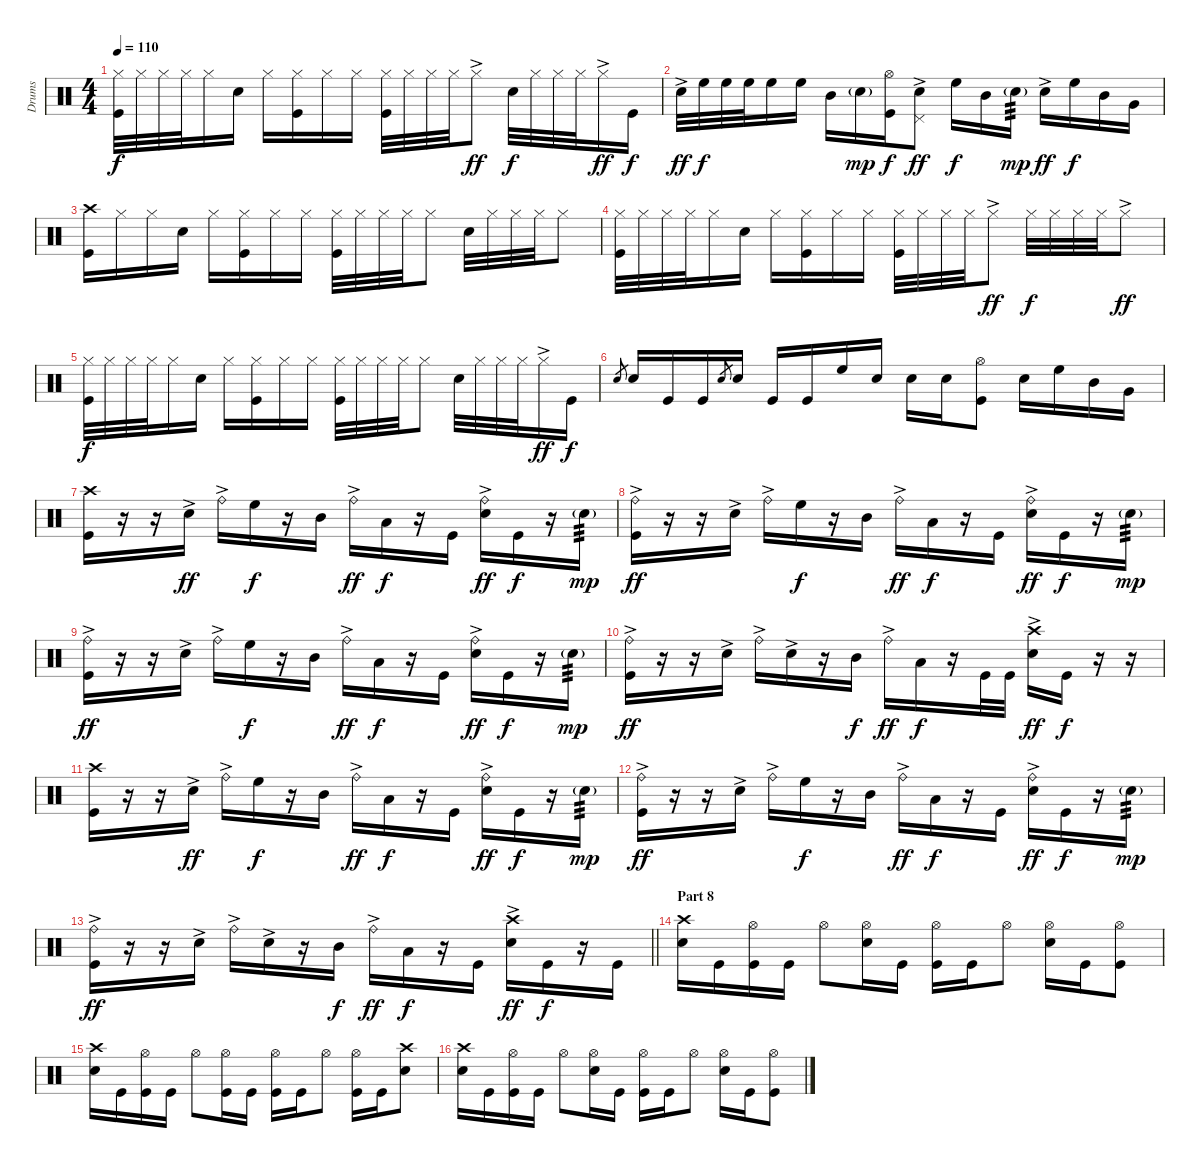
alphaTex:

\track ("Drums" "Drums") {instrument percussion}
\staff {score}
\articulation defaults
\ts (4 4)
\tempo 110
\clef neutral
\ks c
("Kick (hit)" "Hi-Hat (closed)").32{dy f} "Hi-Hat (closed)".32 "Hi-Hat (closed)".32 "Hi-Hat (closed)".32 "Hi-Hat (closed)".16 "Electric Snare (hit)".16 "Hi-Hat (closed)".16 ("Hi-Hat (closed)" "Kick (hit)").16 "Hi-Hat (closed)".16 "Hi-Hat (closed)".16 ("Kick (hit)" "Hi-Hat (closed)").32 "Hi-Hat (closed)".32 "Hi-Hat (closed)".32 "Hi-Hat (closed)".32 "Hi-Hat (closed)"{ac}.8{dy ff} "Electric Snare (hit)".32{dy f} "Hi-Hat (closed)".32 "Hi-Hat (closed)".32 "Hi-Hat (closed)".32 "Hi-Hat (closed)"{ac}.16{dy ff} "Kick (hit)".16{dy f} |
"Electric Snare (hit)"{ac}.32{dy ff} "High Floor Tom (hit)".32{dy f} "High Floor Tom (hit)".32 "High Floor Tom (hit)".32 "High Floor Tom (hit)".16 "High Floor Tom (hit)".16 "Mid Tom (hit)".16 "Electric Snare (hit)"{g}.16{dy mp} ("Hi-Hat (open)" "Kick (hit)").16{dy f} ("Electric Snare (hit)"{ac} "Pedal Hi-Hat (hit)").8{dy ff} "High Floor Tom (hit)".16{dy f} "Mid Tom (hit)".16 "Snare (hit) 2"{g}.16{tp 3 dy mp} "Electric Snare (hit)"{ac}.16{dy ff} "High Floor Tom (hit)".16{dy f} "Mid Tom (hit)".16 "Very Low Tom (hit)".16 |
("Kick (hit)" "Crash high (hit)").16 "Hi-Hat (closed)".16 "Hi-Hat (closed)".16 "Electric Snare (hit)".16 "Hi-Hat (closed)".16 ("Hi-Hat (closed)" "Kick (hit)").16 "Hi-Hat (closed)".16 "Hi-Hat (closed)".16 ("Kick (hit)" "Hi-Hat (closed)").32 "Hi-Hat (closed)".32 "Hi-Hat (closed)".32 "Hi-Hat (closed)".32 "Hi-Hat (closed)".8 "Electric Snare (hit)".32 "Hi-Hat (closed)".32 "Hi-Hat (closed)".32 "Hi-Hat (closed)".32 "Hi-Hat (closed)".8 |
("Kick (hit)" "Hi-Hat (closed)").32 "Hi-Hat (closed)".32 "Hi-Hat (closed)".32 "Hi-Hat (closed)".32 "Hi-Hat (closed)".16 "Electric Snare (hit)".16 "Hi-Hat (closed)".16 ("Hi-Hat (closed)" "Kick (hit)").16 "Hi-Hat (closed)".16 "Hi-Hat (closed)".16 ("Kick (hit)" "Hi-Hat (closed)").32 "Hi-Hat (closed)".32 "Hi-Hat (closed)".32 "Hi-Hat (closed)".32 "Hi-Hat (closed)"{ac}.8{dy ff} "Hi-Hat (closed)".32{dy f} "Hi-Hat (closed)".32 "Hi-Hat (closed)".32 "Hi-Hat (closed)".32 "Hi-Hat (closed)"{ac}.8{dy ff} |
("Kick (hit)" "Hi-Hat (closed)").32{dy f} "Hi-Hat (closed)".32 "Hi-Hat (closed)".32 "Hi-Hat (closed)".32 "Hi-Hat (closed)".16 "Electric Snare (hit)".16 "Hi-Hat (closed)".16 ("Hi-Hat (closed)" "Kick (hit)").16 "Hi-Hat (closed)".16 "Hi-Hat (closed)".16 ("Kick (hit)" "Hi-Hat (closed)").32 "Hi-Hat (closed)".32 "Hi-Hat (closed)".32 "Hi-Hat (closed)".32 "Hi-Hat (closed)".8 "Electric Snare (hit)".32 "Hi-Hat (closed)".32 "Hi-Hat (closed)".32 "Hi-Hat (closed)".32 "Hi-Hat (closed)"{ac}.16{dy ff} "Kick (hit)".16{dy f} |
"Electric Snare (hit)".8{gr} "Electric Snare (hit)".16 "Kick (hit)".16 "Kick (hit)".16 "Electric Snare (hit)".8{gr} "Electric Snare (hit)".16 "Kick (hit)".16 "Kick (hit)".16 "High Floor Tom (hit)".16 "Electric Snare (hit)".16 "Electric Snare (hit)".16 "Electric Snare (hit)".16 ("Kick (hit)" "Hi-Hat (open)").8 "Electric Snare (hit)".16 "High Floor Tom (hit)".16 "Mid Tom (hit)".16 "Very Low Tom (hit)".16 |
("Kick (hit)" "Crash high (hit)").16 r.16 r.16 "Electric Snare (hit)"{ac}.16{dy ff} "Ride (bell)"{ac}.16 "High Floor Tom (hit)".16{dy f} r.16 "Mid Tom (hit)".16 "Ride (bell)"{ac}.16{dy ff} "Low Tom (hit)".16{dy f} r.16 "Kick (hit)".16 ("Ride (bell)"{ac} "Electric Snare (hit)"{ac}).16{dy ff} "Kick (hit)".16{dy f} r.16 "Snare (hit) 2"{g}.16{tp 3 dy mp} |
("Kick (hit)" "Ride (bell)"{ac}).16{dy ff} r.16 r.16 "Electric Snare (hit)"{ac}.16 "Ride (bell)"{ac}.16 "High Floor Tom (hit)".16{dy f} r.16 "Mid Tom (hit)".16 "Ride (bell)"{ac}.16{dy ff} "Low Tom (hit)".16{dy f} r.16 "Kick (hit)".16 ("Ride (bell)"{ac} "Electric Snare (hit)"{ac}).16{dy ff} "Kick (hit)".16{dy f} r.16 "Snare (hit) 2"{g}.16{tp 3 dy mp} |
("Kick (hit)" "Ride (bell)"{ac}).16{dy ff} r.16 r.16 "Electric Snare (hit)"{ac}.16 "Ride (bell)"{ac}.16 "High Floor Tom (hit)".16{dy f} r.16 "Mid Tom (hit)".16 "Ride (bell)"{ac}.16{dy ff} "Low Tom (hit)".16{dy f} r.16 "Kick (hit)".16 ("Ride (bell)"{ac} "Electric Snare (hit)"{ac}).16{dy ff} "Kick (hit)".16{dy f} r.16 "Snare (hit) 2"{g}.16{tp 3 dy mp} |
("Kick (hit)" "Ride (bell)"{ac}).16{dy ff} r.16 r.16 "Electric Snare (hit)"{ac}.16 "Ride (bell)"{ac}.16 "Electric Snare (hit)"{ac}.16 r.16 "Mid Tom (hit)".16{dy f} "Ride (bell)"{ac}.16{dy ff} "Low Tom (hit)".16{dy f} r.16 "Kick (hit)".32 "Kick (hit)".32 ("Crash high (hit)" "Electric Snare (hit)"{ac}).16{dy ff} "Kick (hit)".16{dy f} r.16 r.16 |
("Kick (hit)" "Crash high (hit)").16 r.16 r.16 "Electric Snare (hit)"{ac}.16{dy ff} "Ride (bell)"{ac}.16 "High Floor Tom (hit)".16{dy f} r.16 "Mid Tom (hit)".16 "Ride (bell)"{ac}.16{dy ff} "Low Tom (hit)".16{dy f} r.16 "Kick (hit)".16 ("Ride (bell)"{ac} "Electric Snare (hit)"{ac}).16{dy ff} "Kick (hit)".16{dy f} r.16 "Snare (hit) 2"{g}.16{tp 3 dy mp} |
("Kick (hit)" "Ride (bell)"{ac}).16{dy ff} r.16 r.16 "Electric Snare (hit)"{ac}.16 "Ride (bell)"{ac}.16 "High Floor Tom (hit)".16{dy f} r.16 "Mid Tom (hit)".16 "Ride (bell)"{ac}.16{dy ff} "Low Tom (hit)".16{dy f} r.16 "Kick (hit)".16 ("Ride (bell)"{ac} "Electric Snare (hit)"{ac}).16{dy ff} "Kick (hit)".16{dy f} r.16 "Snare (hit) 2"{g}.16{tp 3 dy mp} |
\barLineRight lightlight
("Kick (hit)" "Ride (bell)"{ac}).16{dy ff} r.16 r.16 "Electric Snare (hit)"{ac}.16 "Ride (bell)"{ac}.16 "Electric Snare (hit)"{ac}.16 r.16 "Mid Tom (hit)".16{dy f} "Ride (bell)"{ac}.16{dy ff} "Low Tom (hit)".16{dy f} r.16 "Kick (hit)".16 ("Electric Snare (hit)"{ac} "Crash high (hit)").16{dy ff} "Kick (hit)".16{dy f} r.16 "Kick (hit)".16 |
\section ("" "Part 8")
("Crash high (hit)" "Electric Snare (hit)").16 "Kick (hit)".16 ("Hi-Hat (open)" "Kick (hit)").16 "Kick (hit)".16 "Hi-Hat (open)".8 ("Electric Snare (hit)" "Hi-Hat (open)").16 "Kick (hit)".16 ("Kick (hit)" "Hi-Hat (open)").16 "Kick (hit)".16 "Hi-Hat (open)".8 ("Electric Snare (hit)" "Hi-Hat (open)").16 "Kick (hit)".16 ("Hi-Hat (open)" "Kick (hit)").8 |
("Crash high (hit)" "Electric Snare (hit)").16 "Kick (hit)".16 ("Hi-Hat (open)" "Kick (hit)").16 "Kick (hit)".16 "Hi-Hat (open)".8 ("Kick (hit)" "Hi-Hat (open)").16 "Kick (hit)".16 ("Kick (hit)" "Hi-Hat (open)").16 "Kick (hit)".16 "Hi-Hat (open)".8 ("Kick (hit)" "Hi-Hat (open)").16 "Kick (hit)".16 ("Crash high (hit)" "Electric Snare (hit)").8 |
("Crash high (hit)" "Electric Snare (hit)").16 "Kick (hit)".16 ("Hi-Hat (open)" "Kick (hit)").16 "Kick (hit)".16 "Hi-Hat (open)".8 ("Electric Snare (hit)" "Hi-Hat (open)").16 "Kick (hit)".16 ("Kick (hit)" "Hi-Hat (open)").16 "Kick (hit)".16 "Hi-Hat (open)".8 ("Electric Snare (hit)" "Hi-Hat (open)").16 "Kick (hit)".16 ("Hi-Hat (open)" "Kick (hit)").8
